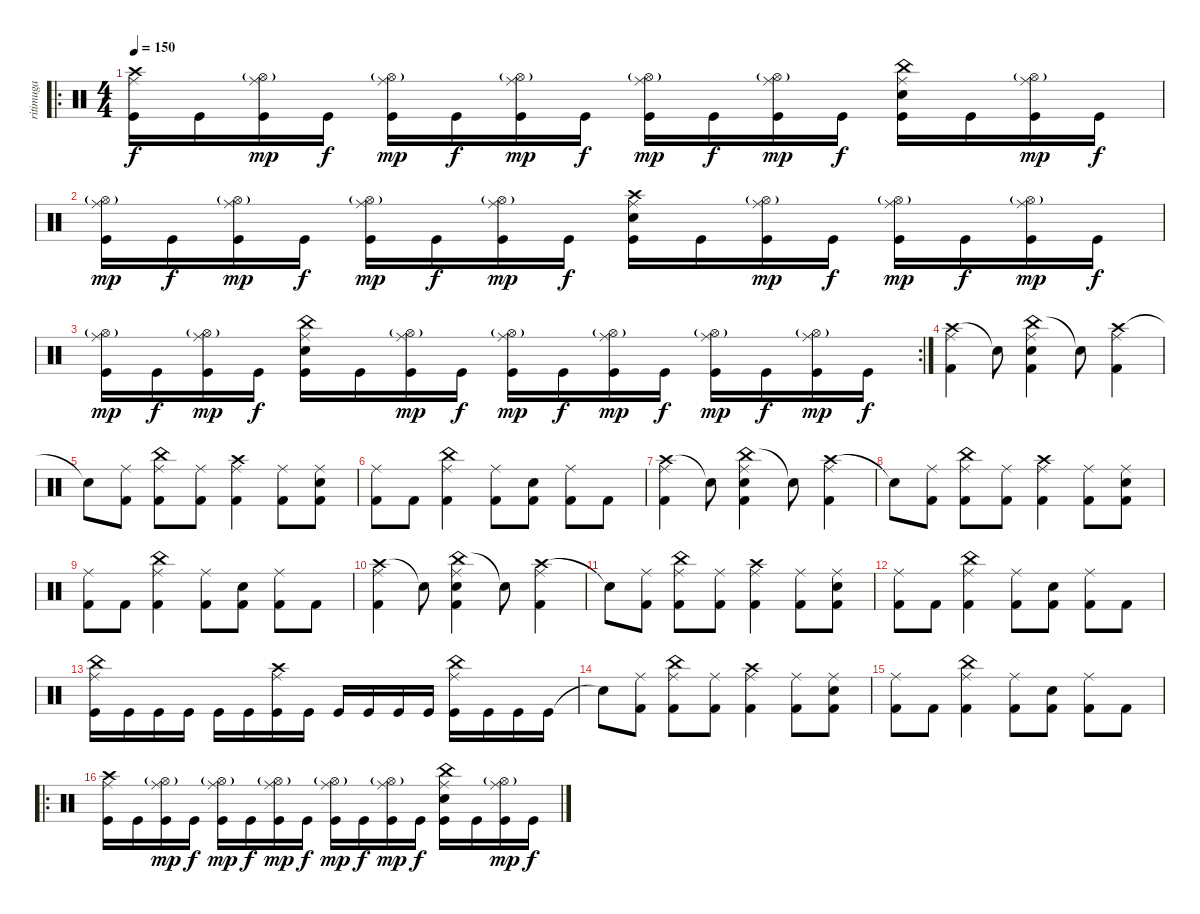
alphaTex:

\track ("ritimuga" "ritimuga") {instrument percussion}
\staff {score}
\articulation defaults
\ro
\ts (4 4)
\tempo 150
\clef neutral
\ks c
("Crash high (hit)" "Ride (middle)" "Kick (hit)").16{dy f} "Kick (hit)".16 ("Hi-Hat (open)"{g} "Ride (middle)" "Kick (hit)").16{dy mp} "Kick (hit)".16{dy f} ("Hi-Hat (open)"{g} "Ride (middle)" "Kick (hit)").16{dy mp} "Kick (hit)".16{dy f} ("Hi-Hat (open)"{g} "Ride (middle)" "Kick (hit)").16{dy mp} "Kick (hit)".16{dy f} ("Hi-Hat (open)"{g} "Ride (middle)" "Kick (hit)").16{dy mp} "Kick (hit)".16{dy f} ("Hi-Hat (open)"{g} "Ride (middle)" "Kick (hit)").16{dy mp} "Kick (hit)".16{dy f} ("China (hit)" "Electric Snare (hit)" "Ride (middle)" "Kick (hit)").16 "Kick (hit)".16 ("Hi-Hat (open)"{g} "Ride (middle)" "Kick (hit)").16{dy mp} "Kick (hit)".16{dy f} |
("Hi-Hat (open)"{g} "Ride (middle)" "Kick (hit)").16{dy mp} "Kick (hit)".16{dy f} ("Hi-Hat (open)"{g} "Ride (middle)" "Kick (hit)").16{dy mp} "Kick (hit)".16{dy f} ("Hi-Hat (open)"{g} "Ride (middle)" "Kick (hit)").16{dy mp} "Kick (hit)".16{dy f} ("Hi-Hat (open)"{g} "Ride (middle)" "Kick (hit)").16{dy mp} "Kick (hit)".16{dy f} ("Crash high (hit)" "Electric Snare (hit)" "Ride (middle)" "Kick (hit)").16 "Kick (hit)".16 ("Hi-Hat (open)"{g} "Ride (middle)" "Kick (hit)").16{dy mp} "Kick (hit)".16{dy f} ("Hi-Hat (open)"{g} "Ride (middle)" "Kick (hit)").16{dy mp} "Kick (hit)".16{dy f} ("Hi-Hat (open)"{g} "Ride (middle)" "Kick (hit)").16{dy mp} "Kick (hit)".16{dy f} |
\rc 2
("Hi-Hat (open)"{g} "Ride (middle)" "Kick (hit)").16{dy mp} "Kick (hit)".16{dy f} ("Hi-Hat (open)"{g} "Ride (middle)" "Kick (hit)").16{dy mp} "Kick (hit)".16{dy f} ("China (hit)" "Electric Snare (hit)" "Ride (middle)" "Kick (hit)").16 "Kick (hit)".16 ("Hi-Hat (open)"{g} "Ride (middle)" "Kick (hit)").16{dy mp} "Kick (hit)".16{dy f} ("Hi-Hat (open)"{g} "Ride (middle)" "Kick (hit)").16{dy mp} "Kick (hit)".16{dy f} ("Hi-Hat (open)"{g} "Ride (middle)" "Kick (hit)").16{dy mp} "Kick (hit)".16{dy f} ("Hi-Hat (open)"{g} "Ride (middle)" "Kick (hit)").16{dy mp} "Kick (hit)".16{dy f} ("Hi-Hat (open)"{g} "Ride (middle)" "Kick (hit)").16{dy mp} "Kick (hit)".16{dy f} |
("Crash high (hit)" "Ride (middle)" "Kick (hit) 2").4 "Snare (hit)"{t}.8 ("China (hit)" "Electric Snare (hit)" "Ride (middle)" "Kick (hit) 2").4 "Snare (hit)"{t}.8 ("Crash high (hit)" "Ride (middle)" "Kick (hit) 2").4 |
"Snare (hit)"{t}.8 ("Ride (middle)" "Kick (hit) 2").8 ("Ride (middle)" "China (hit)" "Kick (hit) 2").8 ("Ride (middle)" "Kick (hit) 2").8 ("Ride (middle)" "Crash high (hit)" "Kick (hit) 2").4 ("Ride (middle)" "Kick (hit) 2").8 ("Ride (middle)" "Electric Snare (hit)" "Kick (hit) 2").8 |
("Ride (middle)" "Kick (hit) 2").8 "Kick (hit) 2".8 ("Ride (middle)" "China (hit)" "Kick (hit) 2").4 ("Ride (middle)" "Kick (hit) 2").8 ("Electric Snare (hit)" "Kick (hit) 2").8 ("Ride (middle)" "Kick (hit) 2").8 "Kick (hit) 2".8 |
("Crash high (hit)" "Ride (middle)" "Kick (hit) 2").4 "Snare (hit)"{t}.8 ("China (hit)" "Electric Snare (hit)" "Ride (middle)" "Kick (hit) 2").4 "Snare (hit)"{t}.8 ("Crash high (hit)" "Ride (middle)" "Kick (hit) 2").4 |
"Snare (hit)"{t}.8 ("Ride (middle)" "Kick (hit) 2").8 ("Ride (middle)" "China (hit)" "Kick (hit) 2").8 ("Ride (middle)" "Kick (hit) 2").8 ("Ride (middle)" "Crash high (hit)" "Kick (hit) 2").4 ("Ride (middle)" "Kick (hit) 2").8 ("Ride (middle)" "Electric Snare (hit)" "Kick (hit) 2").8 |
("Ride (middle)" "Kick (hit) 2").8 "Kick (hit) 2".8 ("Ride (middle)" "China (hit)" "Kick (hit) 2").4 ("Ride (middle)" "Kick (hit) 2").8 ("Electric Snare (hit)" "Kick (hit) 2").8 ("Ride (middle)" "Kick (hit) 2").8 "Kick (hit) 2".8 |
("Crash high (hit)" "Ride (middle)" "Kick (hit) 2").4 "Snare (hit)"{t}.8 ("China (hit)" "Electric Snare (hit)" "Ride (middle)" "Kick (hit) 2").4 "Snare (hit)"{t}.8 ("Crash high (hit)" "Ride (middle)" "Kick (hit) 2").4 |
"Snare (hit)"{t}.8 ("Ride (middle)" "Kick (hit) 2").8 ("Ride (middle)" "China (hit)" "Kick (hit) 2").8 ("Ride (middle)" "Kick (hit) 2").8 ("Ride (middle)" "Crash high (hit)" "Kick (hit) 2").4 ("Ride (middle)" "Kick (hit) 2").8 ("Ride (middle)" "Electric Snare (hit)" "Kick (hit) 2").8 |
("Ride (middle)" "Kick (hit) 2").8 "Kick (hit) 2".8 ("Ride (middle)" "China (hit)" "Kick (hit) 2").4 ("Ride (middle)" "Kick (hit) 2").8 ("Electric Snare (hit)" "Kick (hit) 2").8 ("Ride (middle)" "Kick (hit) 2").8 "Kick (hit) 2".8 |
("China (hit)" "Ride (middle)" "Kick (hit)").16 "Kick (hit)".16 "Kick (hit)".16 "Kick (hit)".16 "Kick (hit)".16 "Kick (hit)".16 ("Crash high (hit)" "Ride (middle)" "Kick (hit)").16 "Kick (hit)".16 "Kick (hit)".16 "Kick (hit)".16 "Kick (hit)".16 "Kick (hit)".16 ("China (hit)" "Ride (middle)" "Kick (hit)").16 "Kick (hit)".16 "Kick (hit)".16 "Kick (hit)".16 |
"Snare (hit)"{t}.8 ("Ride (middle)" "Kick (hit) 2").8 ("Ride (middle)" "China (hit)" "Kick (hit) 2").8 ("Ride (middle)" "Kick (hit) 2").8 ("Ride (middle)" "Crash high (hit)" "Kick (hit) 2").4 ("Ride (middle)" "Kick (hit) 2").8 ("Ride (middle)" "Electric Snare (hit)" "Kick (hit) 2").8 |
("Ride (middle)" "Kick (hit) 2").8 "Kick (hit) 2".8 ("Ride (middle)" "China (hit)" "Kick (hit) 2").4 ("Ride (middle)" "Kick (hit) 2").8 ("Electric Snare (hit)" "Kick (hit) 2").8 ("Ride (middle)" "Kick (hit) 2").8 "Kick (hit) 2".8 |
\ro
("Crash high (hit)" "Ride (middle)" "Kick (hit)").16 "Kick (hit)".16 ("Hi-Hat (open)"{g} "Ride (middle)" "Kick (hit)").16{dy mp} "Kick (hit)".16{dy f} ("Hi-Hat (open)"{g} "Ride (middle)" "Kick (hit)").16{dy mp} "Kick (hit)".16{dy f} ("Hi-Hat (open)"{g} "Ride (middle)" "Kick (hit)").16{dy mp} "Kick (hit)".16{dy f} ("Hi-Hat (open)"{g} "Ride (middle)" "Kick (hit)").16{dy mp} "Kick (hit)".16{dy f} ("Hi-Hat (open)"{g} "Ride (middle)" "Kick (hit)").16{dy mp} "Kick (hit)".16{dy f} ("China (hit)" "Electric Snare (hit)" "Ride (middle)" "Kick (hit)").16 "Kick (hit)".16 ("Hi-Hat (open)"{g} "Ride (middle)" "Kick (hit)").16{dy mp} "Kick (hit)".16{dy f}
